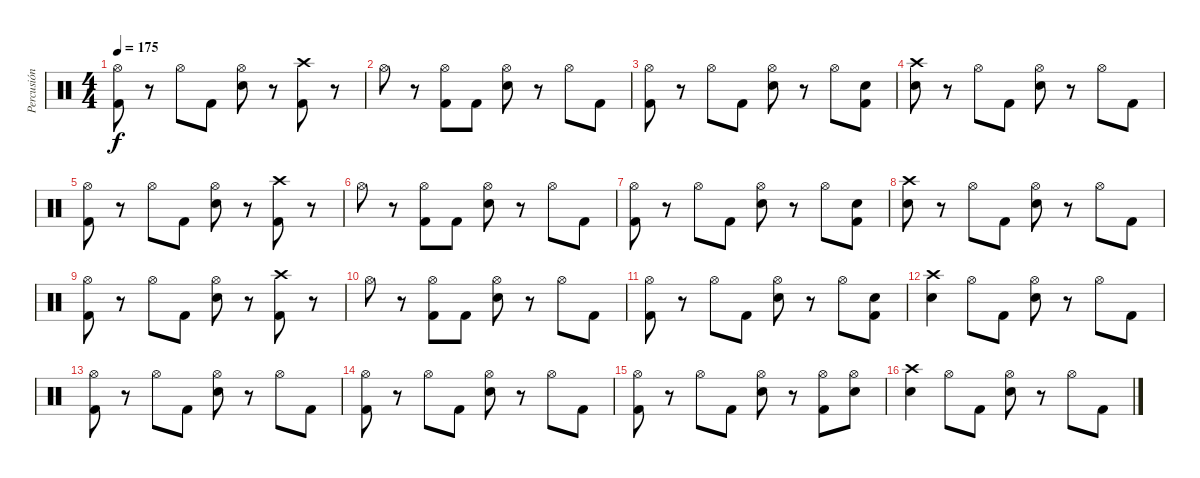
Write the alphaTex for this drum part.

\track ("Percusión" "Percusión") {instrument percussion}
\staff {score}
\articulation defaults
\ts (4 4)
\tempo 175
\clef neutral
\ks c
("Hi-Hat (open)" "Kick (hit) 2").8{dy f} r.8 "Hi-Hat (open)".8 "Kick (hit) 2".8 ("Hi-Hat (open)" "Electric Snare (hit)").8 r.8 ("Crash high (hit)" "Kick (hit) 2").8 r.8 |
"Hi-Hat (open)".8 r.8 ("Hi-Hat (open)" "Kick (hit) 2").8 "Kick (hit) 2".8 ("Hi-Hat (open)" "Electric Snare (hit)").8 r.8 "Hi-Hat (open)".8 "Kick (hit) 2".8 |
("Hi-Hat (open)" "Kick (hit) 2").8 r.8 "Hi-Hat (open)".8 "Kick (hit) 2".8 ("Electric Snare (hit)" "Hi-Hat (open)").8 r.8 "Hi-Hat (open)".8 ("Electric Snare (hit)" "Kick (hit) 2").8 |
("Crash high (hit)" "Electric Snare (hit)").8 r.8 "Hi-Hat (open)".8 "Kick (hit) 2".8 ("Hi-Hat (open)" "Electric Snare (hit)").8 r.8 "Hi-Hat (open)".8 "Kick (hit) 2".8 |
("Hi-Hat (open)" "Kick (hit) 2").8 r.8 "Hi-Hat (open)".8 "Kick (hit) 2".8 ("Hi-Hat (open)" "Electric Snare (hit)").8 r.8 ("Crash high (hit)" "Kick (hit) 2").8 r.8 |
"Hi-Hat (open)".8 r.8 ("Hi-Hat (open)" "Kick (hit) 2").8 "Kick (hit) 2".8 ("Hi-Hat (open)" "Electric Snare (hit)").8 r.8 "Hi-Hat (open)".8 "Kick (hit) 2".8 |
("Hi-Hat (open)" "Kick (hit) 2").8 r.8 "Hi-Hat (open)".8 "Kick (hit) 2".8 ("Electric Snare (hit)" "Hi-Hat (open)").8 r.8 "Hi-Hat (open)".8 ("Electric Snare (hit)" "Kick (hit) 2").8 |
("Crash high (hit)" "Electric Snare (hit)").8 r.8 "Hi-Hat (open)".8 "Kick (hit) 2".8 ("Hi-Hat (open)" "Electric Snare (hit)").8 r.8 "Hi-Hat (open)".8 "Kick (hit) 2".8 |
("Hi-Hat (open)" "Kick (hit) 2").8 r.8 "Hi-Hat (open)".8 "Kick (hit) 2".8 ("Hi-Hat (open)" "Electric Snare (hit)").8 r.8 ("Crash high (hit)" "Kick (hit) 2").8 r.8 |
"Hi-Hat (open)".8 r.8 ("Hi-Hat (open)" "Kick (hit) 2").8 "Kick (hit) 2".8 ("Hi-Hat (open)" "Electric Snare (hit)").8 r.8 "Hi-Hat (open)".8 "Kick (hit) 2".8 |
("Hi-Hat (open)" "Kick (hit) 2").8 r.8 "Hi-Hat (open)".8 "Kick (hit) 2".8 ("Electric Snare (hit)" "Hi-Hat (open)").8 r.8 "Hi-Hat (open)".8 ("Electric Snare (hit)" "Kick (hit) 2").8 |
("Crash high (hit)" "Electric Snare (hit)").4 "Hi-Hat (open)".8 "Kick (hit) 2".8 ("Hi-Hat (open)" "Electric Snare (hit)").8 r.8 "Hi-Hat (open)".8 "Kick (hit) 2".8 |
("Hi-Hat (open)" "Kick (hit) 2").8 r.8 "Hi-Hat (open)".8 "Kick (hit) 2".8 ("Hi-Hat (open)" "Electric Snare (hit)").8 r.8 "Hi-Hat (open)".8 "Kick (hit) 2".8 |
("Hi-Hat (open)" "Kick (hit) 2").8 r.8 "Hi-Hat (open)".8 "Kick (hit) 2".8 ("Hi-Hat (open)" "Electric Snare (hit)").8 r.8 "Hi-Hat (open)".8 "Kick (hit) 2".8 |
("Hi-Hat (open)" "Kick (hit) 2").8 r.8 "Hi-Hat (open)".8 "Kick (hit) 2".8 ("Hi-Hat (open)" "Electric Snare (hit)").8 r.8 ("Hi-Hat (open)" "Kick (hit) 2").8 ("Electric Snare (hit)" "Hi-Hat (open)").8 |
("Crash high (hit)" "Electric Snare (hit)").4 "Hi-Hat (open)".8 "Kick (hit) 2".8 ("Hi-Hat (open)" "Electric Snare (hit)").8 r.8 "Hi-Hat (open)".8 "Kick (hit) 2".8
